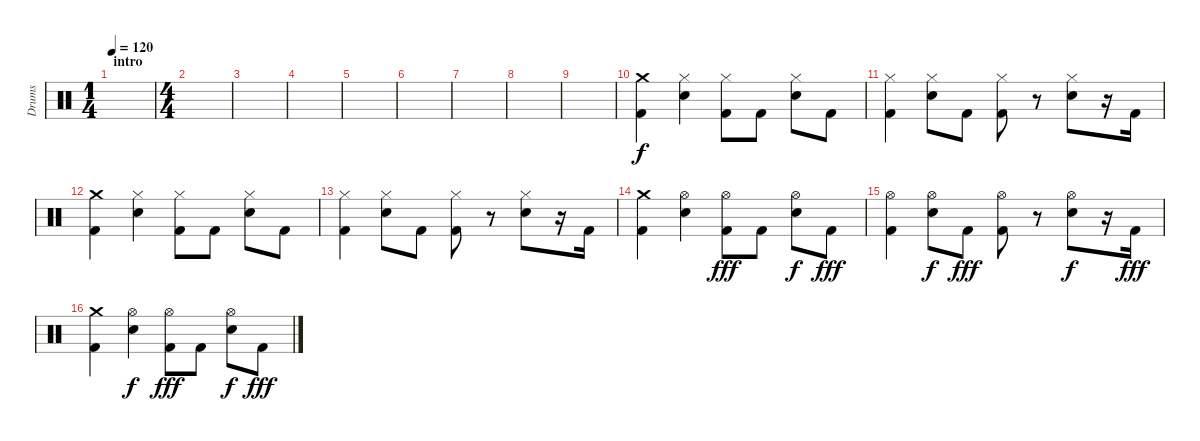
\track ("Drums" "Drums") {instrument percussion}
\staff {score}
\articulation defaults
\ts (1 4)
\section ("" "intro")
\tempo 120
\clef neutral
\ks c
|
\ts (4 4)
|
|
|
|
|
|
|
|
("Kick (hit) 2" "Crash medium (hit)").4 ("Electric Snare (hit)" "Hi-Hat (closed)").4 ("Kick (hit) 2" "Hi-Hat (closed)").8 "Kick (hit) 2".8 ("Electric Snare (hit)" "Hi-Hat (closed)").8 "Kick (hit) 2".8 |
("Kick (hit) 2" "Hi-Hat (closed)").4 ("Electric Snare (hit)" "Hi-Hat (closed)").8 "Kick (hit) 2".8 ("Kick (hit) 2" "Hi-Hat (closed)").8 r.8 ("Electric Snare (hit)" "Hi-Hat (closed)").8 r.16 "Kick (hit) 2".16 |
("Kick (hit) 2" "Crash medium (hit)").4 ("Electric Snare (hit)" "Hi-Hat (closed)").4 ("Kick (hit) 2" "Hi-Hat (closed)").8 "Kick (hit) 2".8 ("Electric Snare (hit)" "Hi-Hat (closed)").8 "Kick (hit) 2".8 |
("Kick (hit) 2" "Hi-Hat (closed)").4 ("Electric Snare (hit)" "Hi-Hat (closed)").8 "Kick (hit) 2".8 ("Kick (hit) 2" "Hi-Hat (closed)").8 r.8 ("Electric Snare (hit)" "Hi-Hat (closed)").8 r.16 "Kick (hit) 2".16 |
("Kick (hit) 2" "Crash medium (hit)").4 ("Electric Snare (hit)" "Hi-Hat (open)").4{dy f} ("Kick (hit) 2" "Hi-Hat (open)").8{dy fff} "Kick (hit) 2".8 ("Electric Snare (hit)" "Hi-Hat (open)").8{dy f} "Kick (hit) 2".8{dy fff} |
("Kick (hit) 2" "Hi-Hat (open)").4 ("Electric Snare (hit)" "Hi-Hat (open)").8{dy f} "Kick (hit) 2".8{dy fff} ("Kick (hit) 2" "Hi-Hat (open)").8 r.8 ("Electric Snare (hit)" "Hi-Hat (open)").8{dy f} r.16 "Kick (hit) 2".16{dy fff} |
("Kick (hit) 2" "Crash medium (hit)").4 ("Electric Snare (hit)" "Hi-Hat (open)").4{dy f} ("Kick (hit) 2" "Hi-Hat (open)").8{dy fff} "Kick (hit) 2".8 ("Electric Snare (hit)" "Hi-Hat (open)").8{dy f} "Kick (hit) 2".8{dy fff}
